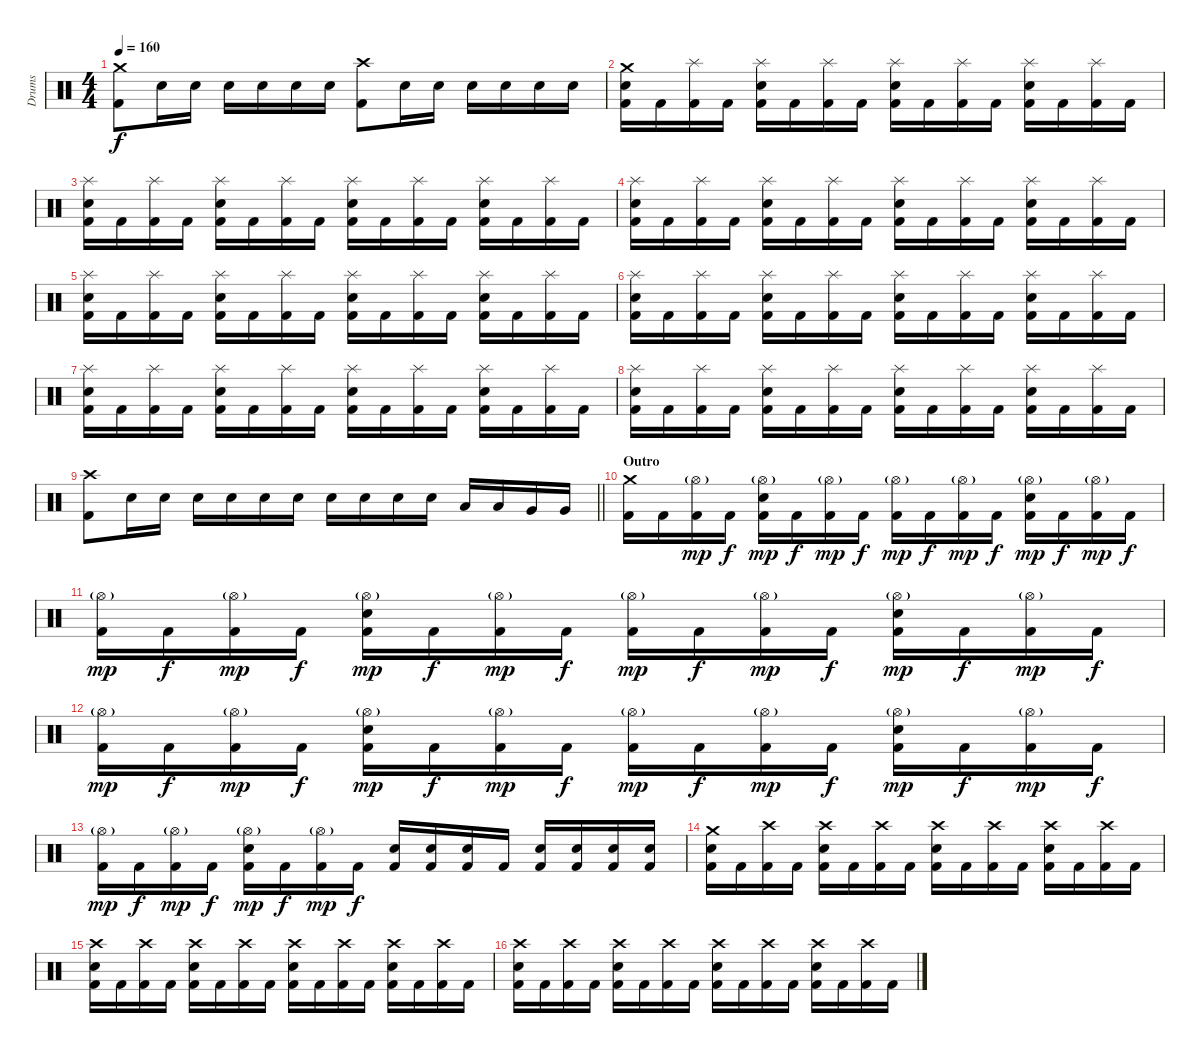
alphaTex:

\track ("Drums" "Drums") {instrument percussion}
\staff {score}
\articulation defaults
\ts (4 4)
\tempo 160
\clef neutral
\ks c
("Crash medium (hit)" "Kick (hit) 2").8{dy f} "Electric Snare (hit)".16 "Electric Snare (hit)".16 "Electric Snare (hit)".16 "Electric Snare (hit)".16 "Electric Snare (hit)".16 "Electric Snare (hit)".16 ("Crash high (hit)" "Kick (hit) 2").8 "Electric Snare (hit)".16 "Electric Snare (hit)".16 "Electric Snare (hit)".16 "Electric Snare (hit)".16 "Electric Snare (hit)".16 "Electric Snare (hit)".16 |
("Crash medium (hit)" "Electric Snare (hit)" "Kick (hit) 2").16 "Kick (hit) 2".16 ("Splash (hit)" "Kick (hit) 2").16 "Kick (hit) 2".16 ("Splash (hit)" "Electric Snare (hit)" "Kick (hit) 2").16 "Kick (hit) 2".16 ("Splash (hit)" "Kick (hit) 2").16 "Kick (hit) 2".16 ("Splash (hit)" "Electric Snare (hit)" "Kick (hit) 2").16 "Kick (hit) 2".16 ("Splash (hit)" "Kick (hit) 2").16 "Kick (hit) 2".16 ("Splash (hit)" "Electric Snare (hit)" "Kick (hit) 2").16 "Kick (hit) 2".16 ("Splash (hit)" "Kick (hit) 2").16 "Kick (hit) 2".16 |
("Splash (hit)" "Electric Snare (hit)" "Kick (hit) 2").16 "Kick (hit) 2".16 ("Splash (hit)" "Kick (hit) 2").16 "Kick (hit) 2".16 ("Splash (hit)" "Electric Snare (hit)" "Kick (hit) 2").16 "Kick (hit) 2".16 ("Splash (hit)" "Kick (hit) 2").16 "Kick (hit) 2".16 ("Splash (hit)" "Electric Snare (hit)" "Kick (hit) 2").16 "Kick (hit) 2".16 ("Splash (hit)" "Kick (hit) 2").16 "Kick (hit) 2".16 ("Splash (hit)" "Electric Snare (hit)" "Kick (hit) 2").16 "Kick (hit) 2".16 ("Splash (hit)" "Kick (hit) 2").16 "Kick (hit) 2".16 |
("Splash (hit)" "Electric Snare (hit)" "Kick (hit) 2").16 "Kick (hit) 2".16 ("Splash (hit)" "Kick (hit) 2").16 "Kick (hit) 2".16 ("Splash (hit)" "Electric Snare (hit)" "Kick (hit) 2").16 "Kick (hit) 2".16 ("Splash (hit)" "Kick (hit) 2").16 "Kick (hit) 2".16 ("Splash (hit)" "Electric Snare (hit)" "Kick (hit) 2").16 "Kick (hit) 2".16 ("Splash (hit)" "Kick (hit) 2").16 "Kick (hit) 2".16 ("Splash (hit)" "Electric Snare (hit)" "Kick (hit) 2").16 "Kick (hit) 2".16 ("Splash (hit)" "Kick (hit) 2").16 "Kick (hit) 2".16 |
("Splash (hit)" "Electric Snare (hit)" "Kick (hit) 2").16 "Kick (hit) 2".16 ("Splash (hit)" "Kick (hit) 2").16 "Kick (hit) 2".16 ("Splash (hit)" "Electric Snare (hit)" "Kick (hit) 2").16 "Kick (hit) 2".16 ("Splash (hit)" "Kick (hit) 2").16 "Kick (hit) 2".16 ("Splash (hit)" "Electric Snare (hit)" "Kick (hit) 2").16 "Kick (hit) 2".16 ("Splash (hit)" "Kick (hit) 2").16 "Kick (hit) 2".16 ("Splash (hit)" "Electric Snare (hit)" "Kick (hit) 2").16 "Kick (hit) 2".16 ("Splash (hit)" "Kick (hit) 2").16 "Kick (hit) 2".16 |
("Splash (hit)" "Electric Snare (hit)" "Kick (hit) 2").16 "Kick (hit) 2".16 ("Splash (hit)" "Kick (hit) 2").16 "Kick (hit) 2".16 ("Splash (hit)" "Electric Snare (hit)" "Kick (hit) 2").16 "Kick (hit) 2".16 ("Splash (hit)" "Kick (hit) 2").16 "Kick (hit) 2".16 ("Splash (hit)" "Electric Snare (hit)" "Kick (hit) 2").16 "Kick (hit) 2".16 ("Splash (hit)" "Kick (hit) 2").16 "Kick (hit) 2".16 ("Splash (hit)" "Electric Snare (hit)" "Kick (hit) 2").16 "Kick (hit) 2".16 ("Splash (hit)" "Kick (hit) 2").16 "Kick (hit) 2".16 |
("Splash (hit)" "Electric Snare (hit)" "Kick (hit) 2").16 "Kick (hit) 2".16 ("Splash (hit)" "Kick (hit) 2").16 "Kick (hit) 2".16 ("Splash (hit)" "Electric Snare (hit)" "Kick (hit) 2").16 "Kick (hit) 2".16 ("Splash (hit)" "Kick (hit) 2").16 "Kick (hit) 2".16 ("Splash (hit)" "Electric Snare (hit)" "Kick (hit) 2").16 "Kick (hit) 2".16 ("Splash (hit)" "Kick (hit) 2").16 "Kick (hit) 2".16 ("Splash (hit)" "Electric Snare (hit)" "Kick (hit) 2").16 "Kick (hit) 2".16 ("Splash (hit)" "Kick (hit) 2").16 "Kick (hit) 2".16 |
("Splash (hit)" "Electric Snare (hit)" "Kick (hit) 2").16 "Kick (hit) 2".16 ("Splash (hit)" "Kick (hit) 2").16 "Kick (hit) 2".16 ("Splash (hit)" "Electric Snare (hit)" "Kick (hit) 2").16 "Kick (hit) 2".16 ("Splash (hit)" "Kick (hit) 2").16 "Kick (hit) 2".16 ("Splash (hit)" "Electric Snare (hit)" "Kick (hit) 2").16 "Kick (hit) 2".16 ("Splash (hit)" "Kick (hit) 2").16 "Kick (hit) 2".16 ("Splash (hit)" "Electric Snare (hit)" "Kick (hit) 2").16 "Kick (hit) 2".16 ("Splash (hit)" "Kick (hit) 2").16 "Kick (hit) 2".16 |
\barLineRight lightlight
("Crash high (hit)" "Kick (hit) 2").8 "Electric Snare (hit)".16 "Electric Snare (hit)".16 "Electric Snare (hit)".16 "Electric Snare (hit)".16 "Electric Snare (hit)".16 "Electric Snare (hit)".16 "Electric Snare (hit)".16 "Electric Snare (hit)".16 "Electric Snare (hit)".16 "Electric Snare (hit)".16 "Low Tom (hit)".16 "Low Tom (hit)".16 "Very Low Tom (hit)".16 "Very Low Tom (hit)".16 |
\section ("" "Outro")
("Crash medium (hit)" "Kick (hit) 2").16 "Kick (hit) 2".16 ("Hi-Hat (open)"{g} "Kick (hit) 2").16{dy mp} "Kick (hit) 2".16{dy f} ("Hi-Hat (open)"{g} "Electric Snare (hit)" "Kick (hit) 2").16{dy mp} "Kick (hit) 2".16{dy f} ("Hi-Hat (open)"{g} "Kick (hit) 2").16{dy mp} "Kick (hit) 2".16{dy f} ("Hi-Hat (open)"{g} "Kick (hit) 2").16{dy mp} "Kick (hit) 2".16{dy f} ("Hi-Hat (open)"{g} "Kick (hit) 2").16{dy mp} "Kick (hit) 2".16{dy f} ("Hi-Hat (open)"{g} "Electric Snare (hit)" "Kick (hit) 2").16{dy mp} "Kick (hit) 2".16{dy f} ("Hi-Hat (open)"{g} "Kick (hit) 2").16{dy mp} "Kick (hit) 2".16{dy f} |
("Hi-Hat (open)"{g} "Kick (hit) 2").16{dy mp} "Kick (hit) 2".16{dy f} ("Hi-Hat (open)"{g} "Kick (hit) 2").16{dy mp} "Kick (hit) 2".16{dy f} ("Hi-Hat (open)"{g} "Electric Snare (hit)" "Kick (hit) 2").16{dy mp} "Kick (hit) 2".16{dy f} ("Hi-Hat (open)"{g} "Kick (hit) 2").16{dy mp} "Kick (hit) 2".16{dy f} ("Hi-Hat (open)"{g} "Kick (hit) 2").16{dy mp} "Kick (hit) 2".16{dy f} ("Hi-Hat (open)"{g} "Kick (hit) 2").16{dy mp} "Kick (hit) 2".16{dy f} ("Hi-Hat (open)"{g} "Electric Snare (hit)" "Kick (hit) 2").16{dy mp} "Kick (hit) 2".16{dy f} ("Hi-Hat (open)"{g} "Kick (hit) 2").16{dy mp} "Kick (hit) 2".16{dy f} |
("Hi-Hat (open)"{g} "Kick (hit) 2").16{dy mp} "Kick (hit) 2".16{dy f} ("Hi-Hat (open)"{g} "Kick (hit) 2").16{dy mp} "Kick (hit) 2".16{dy f} ("Hi-Hat (open)"{g} "Electric Snare (hit)" "Kick (hit) 2").16{dy mp} "Kick (hit) 2".16{dy f} ("Hi-Hat (open)"{g} "Kick (hit) 2").16{dy mp} "Kick (hit) 2".16{dy f} ("Hi-Hat (open)"{g} "Kick (hit) 2").16{dy mp} "Kick (hit) 2".16{dy f} ("Hi-Hat (open)"{g} "Kick (hit) 2").16{dy mp} "Kick (hit) 2".16{dy f} ("Hi-Hat (open)"{g} "Electric Snare (hit)" "Kick (hit) 2").16{dy mp} "Kick (hit) 2".16{dy f} ("Hi-Hat (open)"{g} "Kick (hit) 2").16{dy mp} "Kick (hit) 2".16{dy f} |
("Hi-Hat (open)"{g} "Kick (hit) 2").16{dy mp} "Kick (hit) 2".16{dy f} ("Hi-Hat (open)"{g} "Kick (hit) 2").16{dy mp} "Kick (hit) 2".16{dy f} ("Hi-Hat (open)"{g} "Electric Snare (hit)" "Kick (hit) 2").16{dy mp} "Kick (hit) 2".16{dy f} ("Hi-Hat (open)"{g} "Kick (hit) 2").16{dy mp} "Kick (hit) 2".16{dy f} ("Electric Snare (hit)" "Kick (hit) 2").16 ("Electric Snare (hit)" "Kick (hit) 2").16 ("Electric Snare (hit)" "Kick (hit) 2").16 "Kick (hit) 2".16 ("Electric Snare (hit)" "Kick (hit) 2").16 ("Electric Snare (hit)" "Kick (hit) 2").16 ("Electric Snare (hit)" "Kick (hit) 2").16 ("Electric Snare (hit)" "Kick (hit) 2").16 |
("Crash medium (hit)" "Electric Snare (hit)" "Kick (hit) 2").16 "Kick (hit) 2".16 ("Crash high (hit)" "Kick (hit) 2").16 "Kick (hit) 2".16 ("Crash high (hit)" "Electric Snare (hit)" "Kick (hit) 2").16 "Kick (hit) 2".16 ("Crash high (hit)" "Kick (hit) 2").16 "Kick (hit) 2".16 ("Crash high (hit)" "Electric Snare (hit)" "Kick (hit) 2").16 "Kick (hit) 2".16 ("Crash high (hit)" "Kick (hit) 2").16 "Kick (hit) 2".16 ("Crash high (hit)" "Electric Snare (hit)" "Kick (hit) 2").16 "Kick (hit) 2".16 ("Crash high (hit)" "Kick (hit) 2").16 "Kick (hit) 2".16 |
("Crash high (hit)" "Electric Snare (hit)" "Kick (hit) 2").16 "Kick (hit) 2".16 ("Crash high (hit)" "Kick (hit) 2").16 "Kick (hit) 2".16 ("Crash high (hit)" "Electric Snare (hit)" "Kick (hit) 2").16 "Kick (hit) 2".16 ("Crash high (hit)" "Kick (hit) 2").16 "Kick (hit) 2".16 ("Crash high (hit)" "Electric Snare (hit)" "Kick (hit) 2").16 "Kick (hit) 2".16 ("Crash high (hit)" "Kick (hit) 2").16 "Kick (hit) 2".16 ("Crash high (hit)" "Electric Snare (hit)" "Kick (hit) 2").16 "Kick (hit) 2".16 ("Crash high (hit)" "Kick (hit) 2").16 "Kick (hit) 2".16 |
("Crash high (hit)" "Electric Snare (hit)" "Kick (hit) 2").16 "Kick (hit) 2".16 ("Crash high (hit)" "Kick (hit) 2").16 "Kick (hit) 2".16 ("Crash high (hit)" "Electric Snare (hit)" "Kick (hit) 2").16 "Kick (hit) 2".16 ("Crash high (hit)" "Kick (hit) 2").16 "Kick (hit) 2".16 ("Crash high (hit)" "Electric Snare (hit)" "Kick (hit) 2").16 "Kick (hit) 2".16 ("Crash high (hit)" "Kick (hit) 2").16 "Kick (hit) 2".16 ("Crash high (hit)" "Electric Snare (hit)" "Kick (hit) 2").16 "Kick (hit) 2".16 ("Crash high (hit)" "Kick (hit) 2").16 "Kick (hit) 2".16
